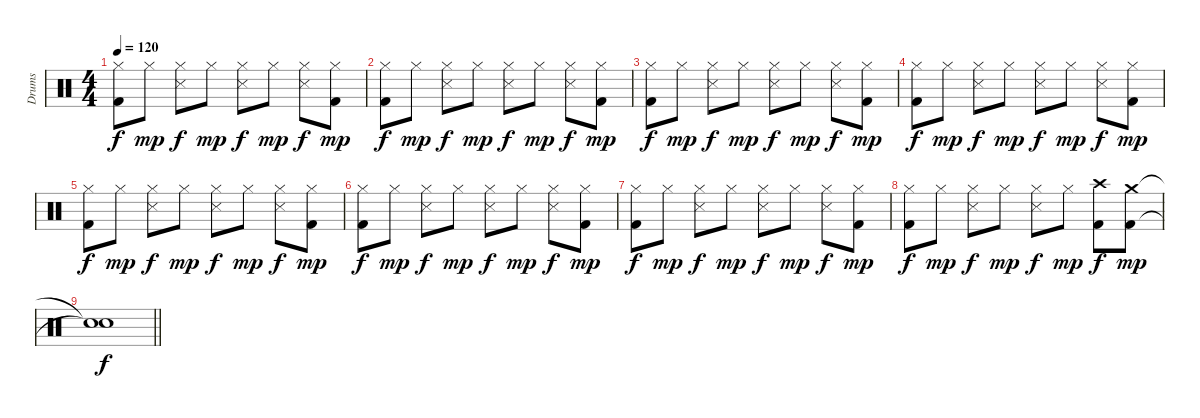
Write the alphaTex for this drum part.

\track ("Drums" "Drums") {instrument percussion}
\staff {score}
\articulation defaults
\ts (4 4)
\tempo 120
\clef neutral
\ks c
("Hi-Hat (closed)" "Kick (hit) 2").8{dy f} "Hi-Hat (closed)".8{dy mp} ("Hi-Hat (closed)" "Snare (side stick) 3").8{dy f} "Hi-Hat (closed)".8{dy mp} ("Hi-Hat (closed)" "Snare (side stick) 3").8{dy f} "Hi-Hat (closed)".8{dy mp} ("Hi-Hat (closed)" "Snare (side stick) 3").8{dy f} ("Hi-Hat (closed)" "Kick (hit) 2").8{dy mp} |
("Hi-Hat (closed)" "Kick (hit) 2").8{dy f} "Hi-Hat (closed)".8{dy mp} ("Hi-Hat (closed)" "Snare (side stick) 3").8{dy f} "Hi-Hat (closed)".8{dy mp} ("Hi-Hat (closed)" "Snare (side stick) 3").8{dy f} "Hi-Hat (closed)".8{dy mp} ("Hi-Hat (closed)" "Snare (side stick) 3").8{dy f} ("Hi-Hat (closed)" "Kick (hit) 2").8{dy mp} |
("Hi-Hat (closed)" "Kick (hit) 2").8{dy f} "Hi-Hat (closed)".8{dy mp} ("Hi-Hat (closed)" "Snare (side stick) 3").8{dy f} "Hi-Hat (closed)".8{dy mp} ("Hi-Hat (closed)" "Snare (side stick) 3").8{dy f} "Hi-Hat (closed)".8{dy mp} ("Hi-Hat (closed)" "Snare (side stick) 3").8{dy f} ("Hi-Hat (closed)" "Kick (hit) 2").8{dy mp} |
("Hi-Hat (closed)" "Kick (hit) 2").8{dy f} "Hi-Hat (closed)".8{dy mp} ("Hi-Hat (closed)" "Snare (side stick) 3").8{dy f} "Hi-Hat (closed)".8{dy mp} ("Hi-Hat (closed)" "Snare (side stick) 3").8{dy f} "Hi-Hat (closed)".8{dy mp} ("Hi-Hat (closed)" "Snare (side stick) 3").8{dy f} ("Hi-Hat (closed)" "Kick (hit) 2").8{dy mp} |
("Hi-Hat (closed)" "Kick (hit) 2").8{dy f} "Hi-Hat (closed)".8{dy mp} ("Hi-Hat (closed)" "Snare (side stick) 3").8{dy f} "Hi-Hat (closed)".8{dy mp} ("Hi-Hat (closed)" "Snare (side stick) 3").8{dy f} "Hi-Hat (closed)".8{dy mp} ("Hi-Hat (closed)" "Snare (side stick) 3").8{dy f} ("Hi-Hat (closed)" "Kick (hit) 2").8{dy mp} |
("Hi-Hat (closed)" "Kick (hit) 2").8{dy f} "Hi-Hat (closed)".8{dy mp} ("Hi-Hat (closed)" "Snare (side stick) 3").8{dy f} "Hi-Hat (closed)".8{dy mp} ("Hi-Hat (closed)" "Snare (side stick) 3").8{dy f} "Hi-Hat (closed)".8{dy mp} ("Hi-Hat (closed)" "Snare (side stick) 3").8{dy f} ("Hi-Hat (closed)" "Kick (hit) 2").8{dy mp} |
("Hi-Hat (closed)" "Kick (hit) 2").8{dy f} "Hi-Hat (closed)".8{dy mp} ("Hi-Hat (closed)" "Snare (side stick) 3").8{dy f} "Hi-Hat (closed)".8{dy mp} ("Hi-Hat (closed)" "Snare (side stick) 3").8{dy f} "Hi-Hat (closed)".8{dy mp} ("Hi-Hat (closed)" "Snare (side stick) 3").8{dy f} ("Hi-Hat (closed)" "Kick (hit) 2").8{dy mp} |
("Hi-Hat (closed)" "Kick (hit) 2").8{dy f} "Hi-Hat (closed)".8{dy mp} ("Hi-Hat (closed)" "Snare (side stick) 3").8{dy f} "Hi-Hat (closed)".8{dy mp} ("Hi-Hat (closed)" "Snare (side stick) 3").8{dy f} "Hi-Hat (closed)".8{dy mp} ("Crash high (hit)" "Kick (hit) 2").8{dy f} ("Crash medium (hit)" "Kick (hit) 2").8{dy mp} |
\barLineRight lightlight
("Snare (hit)"{t} "Snare (hit)"{t}).1{dy f}
